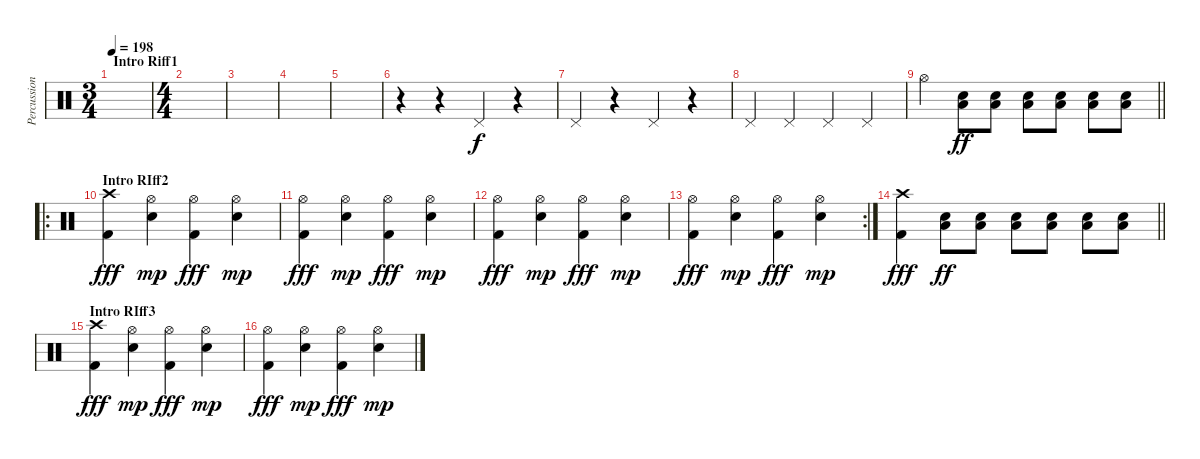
\track ("Percussion" "Percussion") {instrument percussion}
\staff {score}
\articulation defaults
\ts (3 4)
\section ("" "Intro Riff1 ")
\tempo 198
\clef neutral
\ks c
|
\ts (4 4)
|
|
|
|
r.4 r.4 "Pedal Hi-Hat (hit)".4 r.4 |
"Pedal Hi-Hat (hit)".4 r.4 "Pedal Hi-Hat (hit)".4 r.4 |
"Pedal Hi-Hat (hit)".4 "Pedal Hi-Hat (hit)".4 "Pedal Hi-Hat (hit)".4 "Pedal Hi-Hat (hit)".4 |
\barLineRight lightlight "Hi-Hat (open)".4
("Low Floor Tom (hit)" "Snare (hit) 2").8{dy ff} ("Low Floor Tom (hit)" "Snare (hit) 2").8 ("Low Floor Tom (hit)" "Snare (hit) 2").8 ("Low Floor Tom (hit)" "Snare (hit) 2").8 ("Low Floor Tom (hit)" "Snare (hit) 2").8 ("Low Floor Tom (hit)" "Snare (hit) 2").8 |
\ro
\section ("" "Intro RIff2")
("Crash high (hit)" "Kick (hit) 2").4{dy fff} ("Hi-Hat (open)" "Snare (hit) 2").4{dy mp} ("Hi-Hat (open)" "Kick (hit) 2").4{dy fff} ("Hi-Hat (open)" "Snare (hit) 2").4{dy mp} |
("Hi-Hat (open)" "Kick (hit) 2").4{dy fff} ("Hi-Hat (open)" "Snare (hit) 2").4{dy mp} ("Hi-Hat (open)" "Kick (hit) 2").4{dy fff} ("Hi-Hat (open)" "Snare (hit) 2").4{dy mp} |
("Hi-Hat (open)" "Kick (hit) 2").4{dy fff} ("Hi-Hat (open)" "Snare (hit) 2").4{dy mp} ("Hi-Hat (open)" "Kick (hit) 2").4{dy fff} ("Hi-Hat (open)" "Snare (hit) 2").4{dy mp} |
\rc 2
("Hi-Hat (open)" "Kick (hit) 2").4{dy fff} ("Hi-Hat (open)" "Snare (hit) 2").4{dy mp} ("Hi-Hat (open)" "Kick (hit) 2").4{dy fff} ("Hi-Hat (open)" "Snare (hit) 2").4{dy mp} |
\barLineRight lightlight
("Crash high (hit)" "Kick (hit) 2").4{dy fff} ("Low Floor Tom (hit)" "Snare (hit) 2").8{dy ff} ("Low Floor Tom (hit)" "Snare (hit) 2").8 ("Low Floor Tom (hit)" "Snare (hit) 2").8 ("Low Floor Tom (hit)" "Snare (hit) 2").8 ("Low Floor Tom (hit)" "Snare (hit) 2").8 ("Low Floor Tom (hit)" "Snare (hit) 2").8 |
\section ("" "Intro RIff3")
("Crash high (hit)" "Kick (hit) 2").4{dy fff} ("Hi-Hat (open)" "Snare (hit) 2").4{dy mp} ("Hi-Hat (open)" "Kick (hit) 2").4{dy fff} ("Hi-Hat (open)" "Snare (hit) 2").4{dy mp} |
("Hi-Hat (open)" "Kick (hit) 2").4{dy fff} ("Hi-Hat (open)" "Snare (hit) 2").4{dy mp} ("Hi-Hat (open)" "Kick (hit) 2").4{dy fff} ("Hi-Hat (open)" "Snare (hit) 2").4{dy mp}
